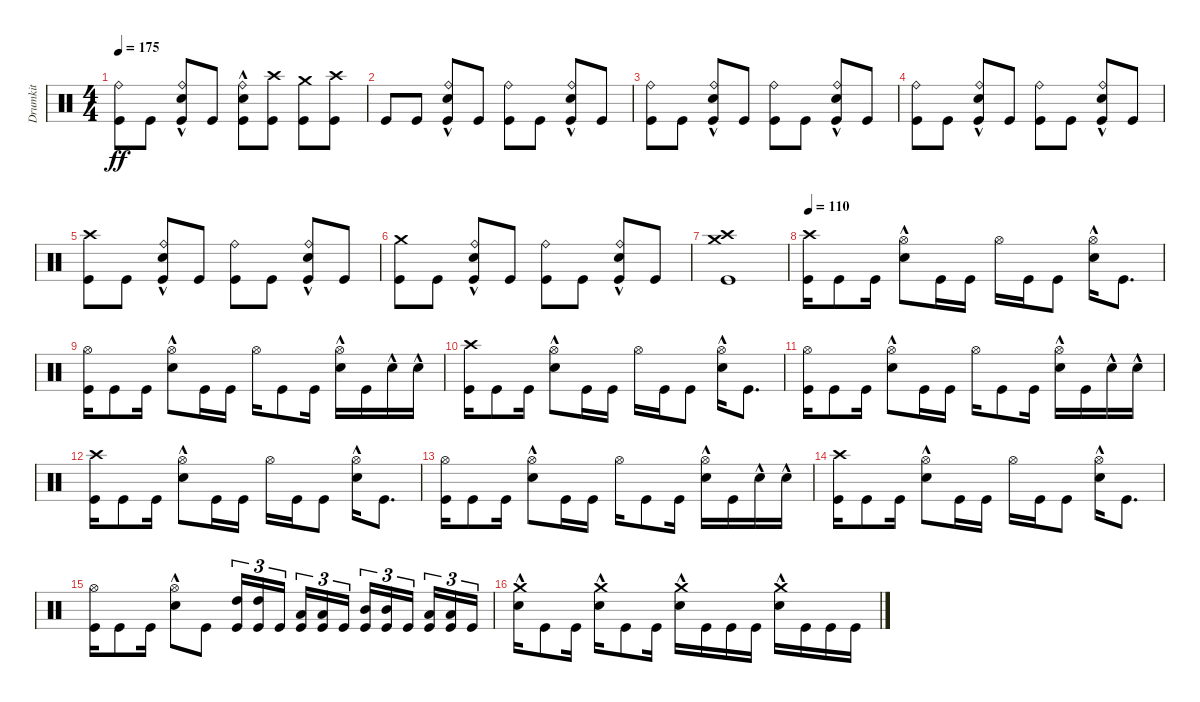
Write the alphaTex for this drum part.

\track ("Drumkit" "Drumkit") {instrument percussion}
\staff {score}
\articulation defaults
\ts (4 4)
\tempo 175
\clef neutral
\ks c
("Kick (hit)" "Ride (bell)").8{dy ff} "Kick (hit)".8 ("Kick (hit)" "Snare (hit) 2"{hac} "Ride (bell)").8 "Kick (hit)".8 ("Kick (hit)" "Ride (bell)" "Snare (hit) 2"{hac}).8 ("Kick (hit)" "Crash high (hit)").8 ("Kick (hit)" "Crash medium (hit)").8 ("Kick (hit)" "Crash high (hit)").8 |
"Kick (hit)".8 "Kick (hit)".8 ("Kick (hit)" "Snare (hit) 2"{hac} "Ride (bell)").8 "Kick (hit)".8 ("Kick (hit)" "Ride (bell)").8 "Kick (hit)".8 ("Kick (hit)" "Snare (hit) 2"{hac} "Ride (bell)").8 "Kick (hit)".8 |
("Kick (hit)" "Ride (bell)").8 "Kick (hit)".8 ("Kick (hit)" "Snare (hit) 2"{hac} "Ride (bell)").8 "Kick (hit)".8 ("Kick (hit)" "Ride (bell)").8 "Kick (hit)".8 ("Kick (hit)" "Snare (hit) 2"{hac} "Ride (bell)").8 "Kick (hit)".8 |
("Kick (hit)" "Ride (bell)").8 "Kick (hit)".8 ("Kick (hit)" "Snare (hit) 2"{hac} "Ride (bell)").8 "Kick (hit)".8 ("Kick (hit)" "Ride (bell)").8 "Kick (hit)".8 ("Kick (hit)" "Ride (bell)" "Snare (hit) 2"{hac}).8 "Kick (hit)".8 |
("Kick (hit)" "Crash high (hit)").8 "Kick (hit)".8 ("Kick (hit)" "Snare (hit) 2"{hac} "Ride (bell)").8 "Kick (hit)".8 ("Kick (hit)" "Ride (bell)").8 "Kick (hit)".8 ("Kick (hit)" "Snare (hit) 2"{hac} "Ride (bell)").8 "Kick (hit)".8 |
("Kick (hit)" "Crash medium (hit)").8 "Kick (hit)".8 ("Kick (hit)" "Snare (hit) 2"{hac} "Ride (bell)").8 "Kick (hit)".8 ("Kick (hit)" "Ride (bell)").8 "Kick (hit)".8 ("Kick (hit)" "Snare (hit) 2"{hac} "Ride (bell)").8 "Kick (hit)".8 |
("Kick (hit)" "Crash high (hit)" "Crash medium (hit)").1 |
\tempo 110
("Kick (hit)" "Crash high (hit)").16 "Kick (hit)".8 "Kick (hit)".16 ("Snare (hit) 2"{hac} "Hi-Hat (open)").8 "Kick (hit)".16 "Kick (hit)".16 "Hi-Hat (open)".16 "Kick (hit)".16 "Kick (hit)".8 ("Snare (hit) 2"{hac} "Hi-Hat (open)").16 "Kick (hit)".8{d} |
("Kick (hit)" "Hi-Hat (open)").16 "Kick (hit)".8 "Kick (hit)".16 ("Snare (hit) 2"{hac} "Hi-Hat (open)").8 "Kick (hit)".16 "Kick (hit)".16 "Hi-Hat (open)".16 "Kick (hit)".8 "Kick (hit)".16 ("Snare (hit) 2"{hac} "Hi-Hat (open)").16 "Kick (hit)".16 "Snare (hit) 2"{hac}.16 "Snare (hit) 2"{hac}.16 |
("Kick (hit)" "Crash high (hit)").16 "Kick (hit)".8 "Kick (hit)".16 ("Snare (hit) 2"{hac} "Hi-Hat (open)").8 "Kick (hit)".16 "Kick (hit)".16 "Hi-Hat (open)".16 "Kick (hit)".16 "Kick (hit)".8 ("Snare (hit) 2"{hac} "Hi-Hat (open)").16 "Kick (hit)".8{d} |
("Kick (hit)" "Hi-Hat (open)").16 "Kick (hit)".8 "Kick (hit)".16 ("Snare (hit) 2"{hac} "Hi-Hat (open)").8 "Kick (hit)".16 "Kick (hit)".16 "Hi-Hat (open)".16 "Kick (hit)".8 "Kick (hit)".16 ("Snare (hit) 2"{hac} "Hi-Hat (open)").16 "Kick (hit)".16 "Snare (hit) 2"{hac}.16 "Snare (hit) 2"{hac}.16 |
("Kick (hit)" "Crash high (hit)").16 "Kick (hit)".8 "Kick (hit)".16 ("Snare (hit) 2"{hac} "Hi-Hat (open)").8 "Kick (hit)".16 "Kick (hit)".16 "Hi-Hat (open)".16 "Kick (hit)".16 "Kick (hit)".8 ("Snare (hit) 2"{hac} "Hi-Hat (open)").16 "Kick (hit)".8{d} |
("Kick (hit)" "Hi-Hat (open)").16 "Kick (hit)".8 "Kick (hit)".16 ("Snare (hit) 2"{hac} "Hi-Hat (open)").8 "Kick (hit)".16 "Kick (hit)".16 "Hi-Hat (open)".16 "Kick (hit)".8 "Kick (hit)".16 ("Snare (hit) 2"{hac} "Hi-Hat (open)").16 "Kick (hit)".16 "Snare (hit) 2"{hac}.16 "Snare (hit) 2"{hac}.16 |
("Kick (hit)" "Crash high (hit)").16 "Kick (hit)".8 "Kick (hit)".16 ("Snare (hit) 2"{hac} "Hi-Hat (open)").8 "Kick (hit)".16 "Kick (hit)".16 "Hi-Hat (open)".16 "Kick (hit)".16 "Kick (hit)".8 ("Snare (hit) 2"{hac} "Hi-Hat (open)").16 "Kick (hit)".8{d} |
("Kick (hit)" "Hi-Hat (open)").16 "Kick (hit)".8 "Kick (hit)".16 ("Snare (hit) 2"{hac} "Hi-Hat (open)").8 "Kick (hit)".8 ("Kick (hit)" "High Tom (hit)").16{tu (3 2)} ("Kick (hit)" "High Tom (hit)").16{tu (3 2)} "Kick (hit)".16{tu (3 2) beam splitsecondary} ("Kick (hit)" "Low Tom (hit)").16{tu (3 2)} ("Kick (hit)" "Low Tom (hit)").16{tu (3 2)} "Kick (hit)".16{tu (3 2)} ("Kick (hit)" "Mid Tom (hit)").16{tu (3 2)} ("Kick (hit)" "Mid Tom (hit)").16{tu (3 2)} "Kick (hit)".16{tu (3 2) beam splitsecondary} ("Kick (hit)" "Low Tom (hit)").16{tu (3 2)} ("Kick (hit)" "Low Tom (hit)").16{tu (3 2)} "Kick (hit)".16{tu (3 2)} |
("Snare (hit) 2"{hac} "Crash medium (hit)").16 "Kick (hit)".8 "Kick (hit)".16 ("Snare (hit) 2"{hac} "Crash medium (hit)").16 "Kick (hit)".8 "Kick (hit)".16 ("Snare (hit) 2"{hac} "Crash medium (hit)").16 "Kick (hit)".16 "Kick (hit)".16 "Kick (hit)".16 ("Snare (hit) 2"{hac} "Crash medium (hit)").16 "Kick (hit)".16 "Kick (hit)".16 "Kick (hit)".16
